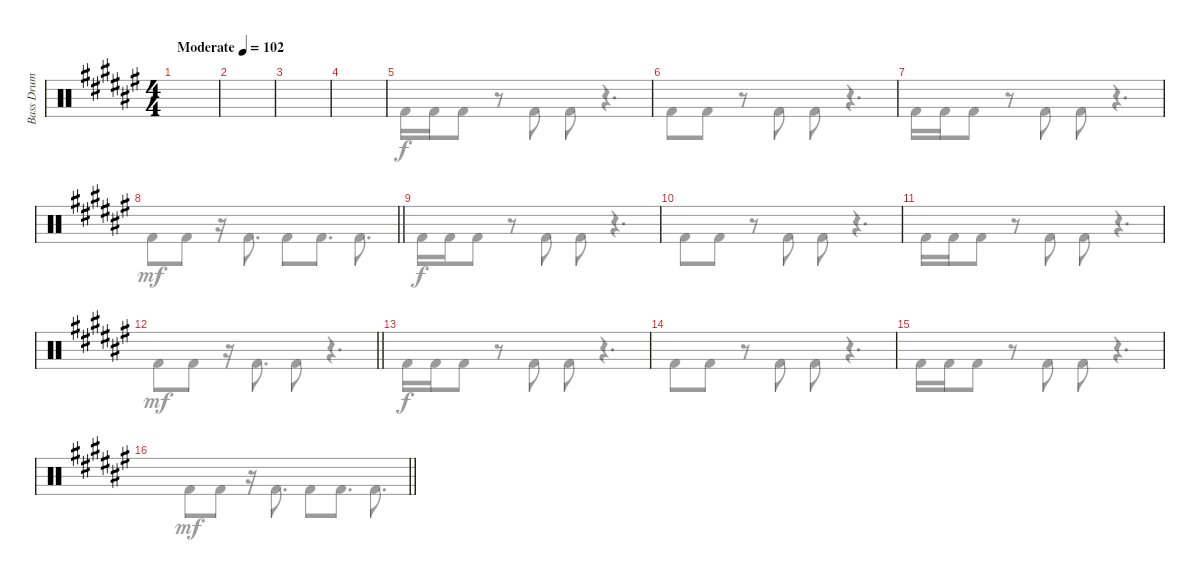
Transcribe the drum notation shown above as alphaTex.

\track ("Bass Drum" "Bass Drum") {instrument percussion}
\staff {score}
\articulation defaults
\voice
\ts (4 4)
\tempo (102 "Moderate")
\clef neutral
\ks d#minor
|
|
|
|
|
|
|
\barLineRight lightlight
|
|
|
|
\barLineRight lightlight
|
|
|
|
\barLineRight lightlight
\voice
\clef neutral
\ks d#minor
|
|
|
|
"Kick (hit) 2".16 "Kick (hit) 2".16 "Kick (hit) 2".8 r.8 "Kick (hit) 2".8 "Kick (hit) 2".8 r.4{d} |
"Kick (hit) 2".8 "Kick (hit) 2".8 r.8 "Kick (hit) 2".8 "Kick (hit) 2".8 r.4{d} |
"Kick (hit) 2".16 "Kick (hit) 2".16 "Kick (hit) 2".8 r.8 "Kick (hit) 2".8 "Kick (hit) 2".8 r.4{d} |
\barLineRight lightlight "Kick (hit) 2".8{dy mf} "Kick (hit) 2".8
r.16 "Kick (hit) 2".8{d} "Kick (hit) 2".8 "Kick (hit) 2".8{d} "Kick (hit) 2".8{d} |
"Kick (hit) 2".16{dy f} "Kick (hit) 2".16 "Kick (hit) 2".8 r.8 "Kick (hit) 2".8 "Kick (hit) 2".8 r.4{d} |
"Kick (hit) 2".8 "Kick (hit) 2".8 r.8 "Kick (hit) 2".8 "Kick (hit) 2".8 r.4{d} |
"Kick (hit) 2".16 "Kick (hit) 2".16 "Kick (hit) 2".8 r.8 "Kick (hit) 2".8 "Kick (hit) 2".8 r.4{d} |
\barLineRight lightlight "Kick (hit) 2".8{dy mf} "Kick (hit) 2".8
r.16 "Kick (hit) 2".8{d} "Kick (hit) 2".8 r.4{d} |
"Kick (hit) 2".16{dy f} "Kick (hit) 2".16 "Kick (hit) 2".8 r.8 "Kick (hit) 2".8 "Kick (hit) 2".8 r.4{d} |
"Kick (hit) 2".8 "Kick (hit) 2".8 r.8 "Kick (hit) 2".8 "Kick (hit) 2".8 r.4{d} |
"Kick (hit) 2".16 "Kick (hit) 2".16 "Kick (hit) 2".8 r.8 "Kick (hit) 2".8 "Kick (hit) 2".8 r.4{d} |
\barLineRight lightlight "Kick (hit) 2".8{dy mf} "Kick (hit) 2".8
r.16 "Kick (hit) 2".8{d} "Kick (hit) 2".8 "Kick (hit) 2".8{d} "Kick (hit) 2".8{d}
